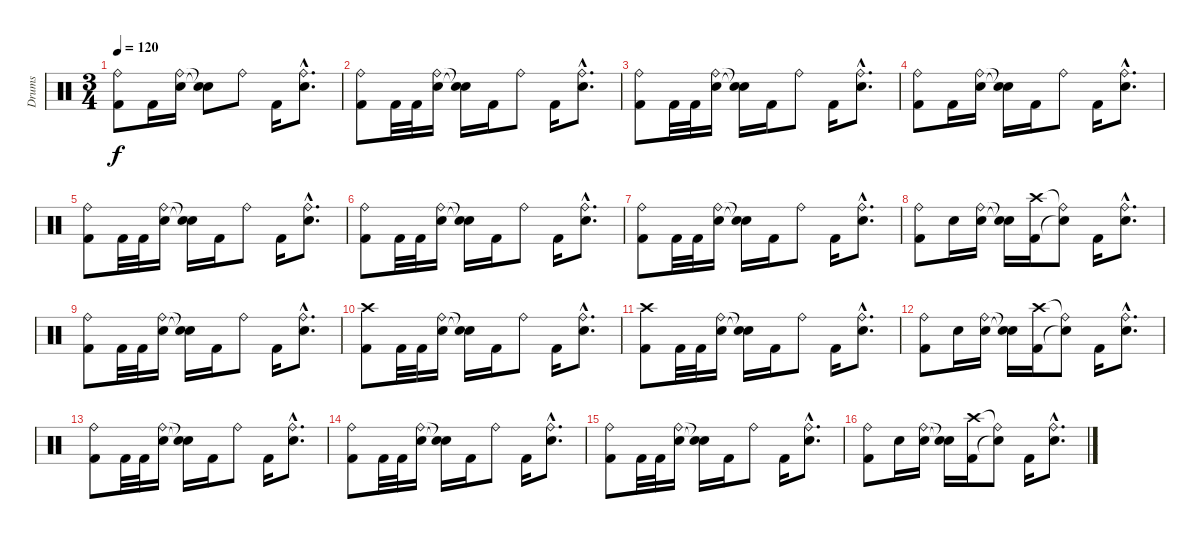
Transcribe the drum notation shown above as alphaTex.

\track ("Drums" "Drums") {instrument percussion}
\staff {score}
\articulation defaults
\ts (3 4)
\tempo 120
\clef neutral
\ks c
("Ride (bell)" "Kick (hit) 2").8{dy f} "Kick (hit) 2".16 ("Ride (bell)" "Electric Snare (hit)").16 ("Snare (hit)"{t} "Snare (hit)"{t}).8 "Ride (bell)".8 "Kick (hit) 2".16 ("Ride (bell)"{hac} "Electric Snare (hit)"{hac}).8{d} |
("Ride (bell)" "Kick (hit) 2").8 "Kick (hit) 2".32 "Kick (hit) 2".32 ("Ride (bell)" "Electric Snare (hit)").16 ("Snare (hit)"{t} "Snare (hit)"{t}).16 "Kick (hit) 2".16 "Ride (bell)".8 "Kick (hit) 2".16 ("Ride (bell)"{hac} "Electric Snare (hit)"{hac}).8{d} |
("Ride (bell)" "Kick (hit) 2").8 "Kick (hit) 2".32 "Kick (hit) 2".32 ("Ride (bell)" "Electric Snare (hit)").16 ("Snare (hit)"{t} "Snare (hit)"{t}).16 "Kick (hit) 2".16 "Ride (bell)".8 "Kick (hit) 2".16 ("Ride (bell)"{hac} "Electric Snare (hit)"{hac}).8{d} |
("Ride (bell)" "Kick (hit) 2").8 "Kick (hit) 2".16 ("Ride (bell)" "Electric Snare (hit)").16 ("Snare (hit)"{t} "Snare (hit)"{t}).16 "Kick (hit) 2".16 "Ride (bell)".8 "Kick (hit) 2".16 ("Ride (bell)"{hac} "Electric Snare (hit)"{hac}).8{d} |
("Ride (bell)" "Kick (hit) 2").8 "Kick (hit) 2".32 "Kick (hit) 2".32 ("Ride (bell)" "Electric Snare (hit)").16 ("Snare (hit)"{t} "Snare (hit)"{t}).16 "Kick (hit) 2".16 "Ride (bell)".8 "Kick (hit) 2".16 ("Ride (bell)"{hac} "Electric Snare (hit)"{hac}).8{d} |
("Ride (bell)" "Kick (hit) 2").8 "Kick (hit) 2".32 "Kick (hit) 2".32 ("Ride (bell)" "Electric Snare (hit)").16 ("Snare (hit)"{t} "Snare (hit)"{t}).16 "Kick (hit) 2".16 "Ride (bell)".8 "Kick (hit) 2".16 ("Ride (bell)"{hac} "Electric Snare (hit)"{hac}).8{d} |
("Ride (bell)" "Kick (hit) 2").8 "Kick (hit) 2".32 "Kick (hit) 2".32 ("Ride (bell)" "Electric Snare (hit)").16 ("Snare (hit)"{t} "Snare (hit)"{t}).16 "Kick (hit) 2".16 "Ride (bell)".8 "Kick (hit) 2".16 ("Ride (bell)"{hac} "Electric Snare (hit)"{hac}).8{d} |
("Ride (bell)" "Kick (hit) 2").8 "Electric Snare (hit)".16 ("Ride (bell)" "Electric Snare (hit)").16 ("Snare (hit)"{t} "Electric Snare (hit)"{t}).16 ("Crash high (hit)" "Kick (hit) 2").16 ("Ride (bell)"{t} "Snare (hit)"{t}).8 "Kick (hit) 2".16 ("Ride (bell)"{hac} "Electric Snare (hit)"{hac}).8{d} |
("Ride (bell)" "Kick (hit) 2").8 "Kick (hit) 2".32 "Kick (hit) 2".32 ("Ride (bell)" "Electric Snare (hit)").16 ("Snare (hit)"{t} "Snare (hit)"{t}).16 "Kick (hit) 2".16 "Ride (bell)".8 "Kick (hit) 2".16 ("Ride (bell)"{hac} "Electric Snare (hit)"{hac}).8{d} |
("Crash high (hit)" "Kick (hit) 2").8 "Kick (hit) 2".32 "Kick (hit) 2".32 ("Ride (bell)" "Electric Snare (hit)").16 ("Snare (hit)"{t} "Snare (hit)"{t}).16 "Kick (hit) 2".16 "Ride (bell)".8 "Kick (hit) 2".16 ("Ride (bell)"{hac} "Electric Snare (hit)"{hac}).8{d} |
("Crash high (hit)" "Kick (hit) 2").8 "Kick (hit) 2".32 "Kick (hit) 2".32 ("Ride (bell)" "Electric Snare (hit)").16 ("Snare (hit)"{t} "Snare (hit)"{t}).16 "Kick (hit) 2".16 "Ride (bell)".8 "Kick (hit) 2".16 ("Ride (bell)"{hac} "Electric Snare (hit)"{hac}).8{d} |
("Ride (bell)" "Kick (hit) 2").8 "Electric Snare (hit)".16 ("Ride (bell)" "Electric Snare (hit)").16 ("Snare (hit)"{t} "Electric Snare (hit)"{t}).16 ("Crash high (hit)" "Kick (hit) 2").16 ("Ride (bell)"{t} "Snare (hit)"{t}).8 "Kick (hit) 2".16 ("Ride (bell)"{hac} "Electric Snare (hit)"{hac}).8{d} |
("Ride (bell)" "Kick (hit) 2").8 "Kick (hit) 2".32 "Kick (hit) 2".32 ("Ride (bell)" "Electric Snare (hit)").16 ("Snare (hit)"{t} "Snare (hit)"{t}).16 "Kick (hit) 2".16 "Ride (bell)".8 "Kick (hit) 2".16 ("Ride (bell)"{hac} "Electric Snare (hit)"{hac}).8{d} |
("Ride (bell)" "Kick (hit) 2").8 "Kick (hit) 2".32 "Kick (hit) 2".32 ("Ride (bell)" "Electric Snare (hit)").16 ("Snare (hit)"{t} "Snare (hit)"{t}).16 "Kick (hit) 2".16 "Ride (bell)".8 "Kick (hit) 2".16 ("Ride (bell)"{hac} "Electric Snare (hit)"{hac}).8{d} |
("Ride (bell)" "Kick (hit) 2").8 "Kick (hit) 2".32 "Kick (hit) 2".32 ("Ride (bell)" "Electric Snare (hit)").16 ("Snare (hit)"{t} "Snare (hit)"{t}).16 "Kick (hit) 2".16 "Ride (bell)".8 "Kick (hit) 2".16 ("Ride (bell)"{hac} "Electric Snare (hit)"{hac}).8{d} |
("Ride (bell)" "Kick (hit) 2").8 "Electric Snare (hit)".16 ("Ride (bell)" "Electric Snare (hit)").16 ("Snare (hit)"{t} "Electric Snare (hit)"{t}).16 ("Crash high (hit)" "Kick (hit) 2").16 ("Ride (bell)"{t} "Snare (hit)"{t}).8 "Kick (hit) 2".16 ("Ride (bell)"{hac} "Electric Snare (hit)"{hac}).8{d}
